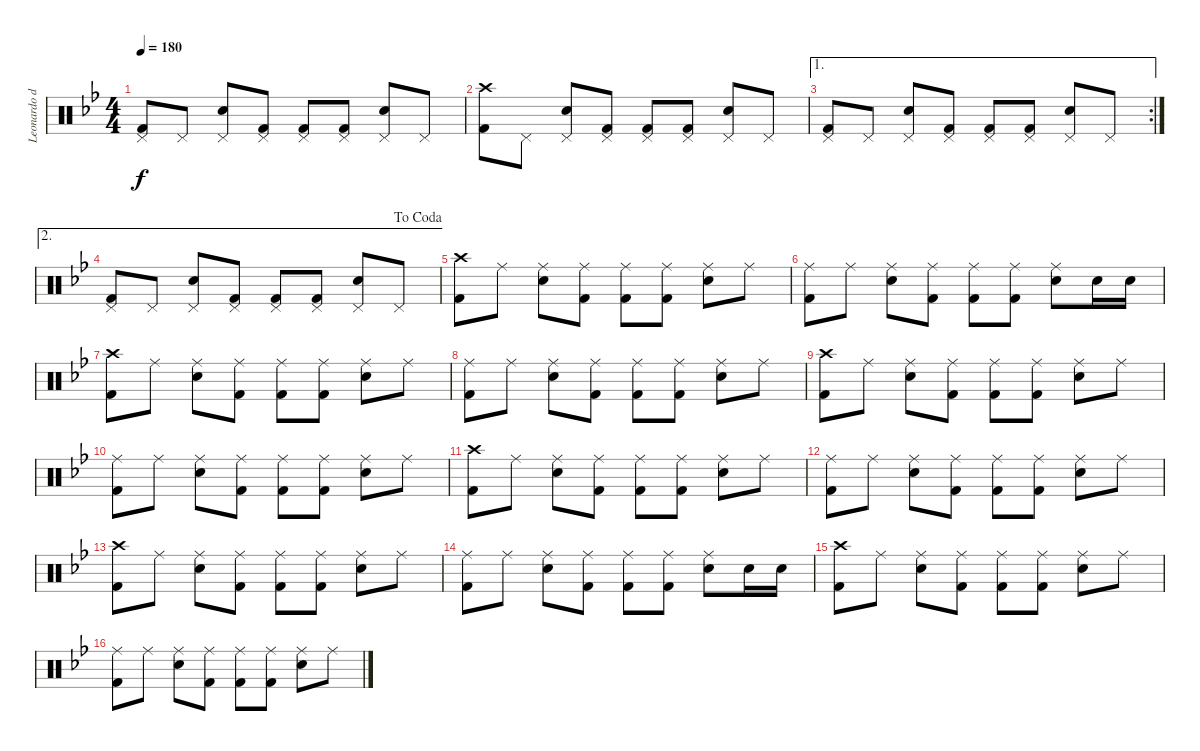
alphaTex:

\track ("Leonardo de Cecco" "Leonardo d") {instrument percussion}
\staff {score}
\articulation defaults
\ts (4 4)
\tempo 180
\clef neutral
\ks bb
("Pedal Hi-Hat (hit)" "Kick (hit) 2").8{dy f} "Pedal Hi-Hat (hit)".8 ("Pedal Hi-Hat (hit)" "Snare (hit) 2").8 ("Pedal Hi-Hat (hit)" "Kick (hit) 2").8 ("Pedal Hi-Hat (hit)" "Kick (hit) 2").8 ("Pedal Hi-Hat (hit)" "Kick (hit) 2").8 ("Pedal Hi-Hat (hit)" "Snare (hit) 2").8 "Pedal Hi-Hat (hit)".8 |
("Crash high (hit)" "Kick (hit) 2").8 "Pedal Hi-Hat (hit)".8 ("Pedal Hi-Hat (hit)" "Snare (hit) 2").8 ("Pedal Hi-Hat (hit)" "Kick (hit) 2").8 ("Pedal Hi-Hat (hit)" "Kick (hit) 2").8 ("Pedal Hi-Hat (hit)" "Kick (hit) 2").8 ("Pedal Hi-Hat (hit)" "Snare (hit) 2").8 "Pedal Hi-Hat (hit)".8 |
\ae 1
\rc 2
("Pedal Hi-Hat (hit)" "Kick (hit) 2").8 "Pedal Hi-Hat (hit)".8 ("Pedal Hi-Hat (hit)" "Snare (hit) 2").8 ("Pedal Hi-Hat (hit)" "Kick (hit) 2").8 ("Pedal Hi-Hat (hit)" "Kick (hit) 2").8 ("Pedal Hi-Hat (hit)" "Kick (hit) 2").8 ("Pedal Hi-Hat (hit)" "Snare (hit) 2").8 "Pedal Hi-Hat (hit)".8 |
\ae 2
\jump dacoda
("Pedal Hi-Hat (hit)" "Kick (hit) 2").8 "Pedal Hi-Hat (hit)".8 ("Pedal Hi-Hat (hit)" "Snare (hit) 2").8 ("Pedal Hi-Hat (hit)" "Kick (hit) 2").8 ("Pedal Hi-Hat (hit)" "Kick (hit) 2").8 ("Pedal Hi-Hat (hit)" "Kick (hit) 2").8 ("Pedal Hi-Hat (hit)" "Snare (hit) 2").8 "Pedal Hi-Hat (hit)".8 |
("Crash high (hit)" "Kick (hit) 2").8 "Ride (middle)".8 ("Ride (middle)" "Snare (hit) 2").8 ("Ride (middle)" "Kick (hit) 2").8 ("Ride (middle)" "Kick (hit) 2").8 ("Ride (middle)" "Kick (hit) 2").8 ("Ride (middle)" "Snare (hit) 2").8 "Ride (middle)".8 |
("Ride (middle)" "Kick (hit) 2").8 "Ride (middle)".8 ("Ride (middle)" "Snare (hit) 2").8 ("Ride (middle)" "Kick (hit) 2").8 ("Ride (middle)" "Kick (hit) 2").8 ("Ride (middle)" "Kick (hit) 2").8 ("Ride (middle)" "Snare (hit) 2").8 "Snare (hit) 2".16 "Snare (hit) 2".16 |
("Crash high (hit)" "Kick (hit) 2").8 "Ride (middle)".8 ("Ride (middle)" "Snare (hit) 2").8 ("Ride (middle)" "Kick (hit) 2").8 ("Ride (middle)" "Kick (hit) 2").8 ("Ride (middle)" "Kick (hit) 2").8 ("Ride (middle)" "Snare (hit) 2").8 "Ride (middle)".8 |
("Ride (middle)" "Kick (hit) 2").8 "Ride (middle)".8 ("Ride (middle)" "Snare (hit) 2").8 ("Ride (middle)" "Kick (hit) 2").8 ("Ride (middle)" "Kick (hit) 2").8 ("Ride (middle)" "Kick (hit) 2").8 ("Ride (middle)" "Snare (hit) 2").8 "Ride (middle)".8 |
("Crash high (hit)" "Kick (hit) 2").8 "Ride (middle)".8 ("Ride (middle)" "Snare (hit) 2").8 ("Ride (middle)" "Kick (hit) 2").8 ("Ride (middle)" "Kick (hit) 2").8 ("Ride (middle)" "Kick (hit) 2").8 ("Ride (middle)" "Snare (hit) 2").8 "Ride (middle)".8 |
("Ride (middle)" "Kick (hit) 2").8 "Ride (middle)".8 ("Ride (middle)" "Snare (hit) 2").8 ("Ride (middle)" "Kick (hit) 2").8 ("Ride (middle)" "Kick (hit) 2").8 ("Ride (middle)" "Kick (hit) 2").8 ("Ride (middle)" "Snare (hit) 2").8 "Ride (middle)".8 |
("Crash high (hit)" "Kick (hit) 2").8 "Ride (middle)".8 ("Ride (middle)" "Snare (hit) 2").8 ("Ride (middle)" "Kick (hit) 2").8 ("Ride (middle)" "Kick (hit) 2").8 ("Ride (middle)" "Kick (hit) 2").8 ("Ride (middle)" "Snare (hit) 2").8 "Ride (middle)".8 |
("Ride (middle)" "Kick (hit) 2").8 "Ride (middle)".8 ("Ride (middle)" "Snare (hit) 2").8 ("Ride (middle)" "Kick (hit) 2").8 ("Ride (middle)" "Kick (hit) 2").8 ("Ride (middle)" "Kick (hit) 2").8 ("Ride (middle)" "Snare (hit) 2").8 "Ride (middle)".8 |
("Crash high (hit)" "Kick (hit) 2").8 "Ride (middle)".8 ("Ride (middle)" "Snare (hit) 2").8 ("Ride (middle)" "Kick (hit) 2").8 ("Ride (middle)" "Kick (hit) 2").8 ("Ride (middle)" "Kick (hit) 2").8 ("Ride (middle)" "Snare (hit) 2").8 "Ride (middle)".8 |
("Ride (middle)" "Kick (hit) 2").8 "Ride (middle)".8 ("Ride (middle)" "Snare (hit) 2").8 ("Ride (middle)" "Kick (hit) 2").8 ("Ride (middle)" "Kick (hit) 2").8 ("Ride (middle)" "Kick (hit) 2").8 ("Ride (middle)" "Snare (hit) 2").8 "Snare (hit) 2".16 "Snare (hit) 2".16 |
("Crash high (hit)" "Kick (hit) 2").8 "Ride (middle)".8 ("Ride (middle)" "Snare (hit) 2").8 ("Ride (middle)" "Kick (hit) 2").8 ("Ride (middle)" "Kick (hit) 2").8 ("Ride (middle)" "Kick (hit) 2").8 ("Ride (middle)" "Snare (hit) 2").8 "Ride (middle)".8 |
("Ride (middle)" "Kick (hit) 2").8 "Ride (middle)".8 ("Ride (middle)" "Snare (hit) 2").8 ("Ride (middle)" "Kick (hit) 2").8 ("Ride (middle)" "Kick (hit) 2").8 ("Ride (middle)" "Kick (hit) 2").8 ("Ride (middle)" "Snare (hit) 2").8 "Ride (middle)".8
